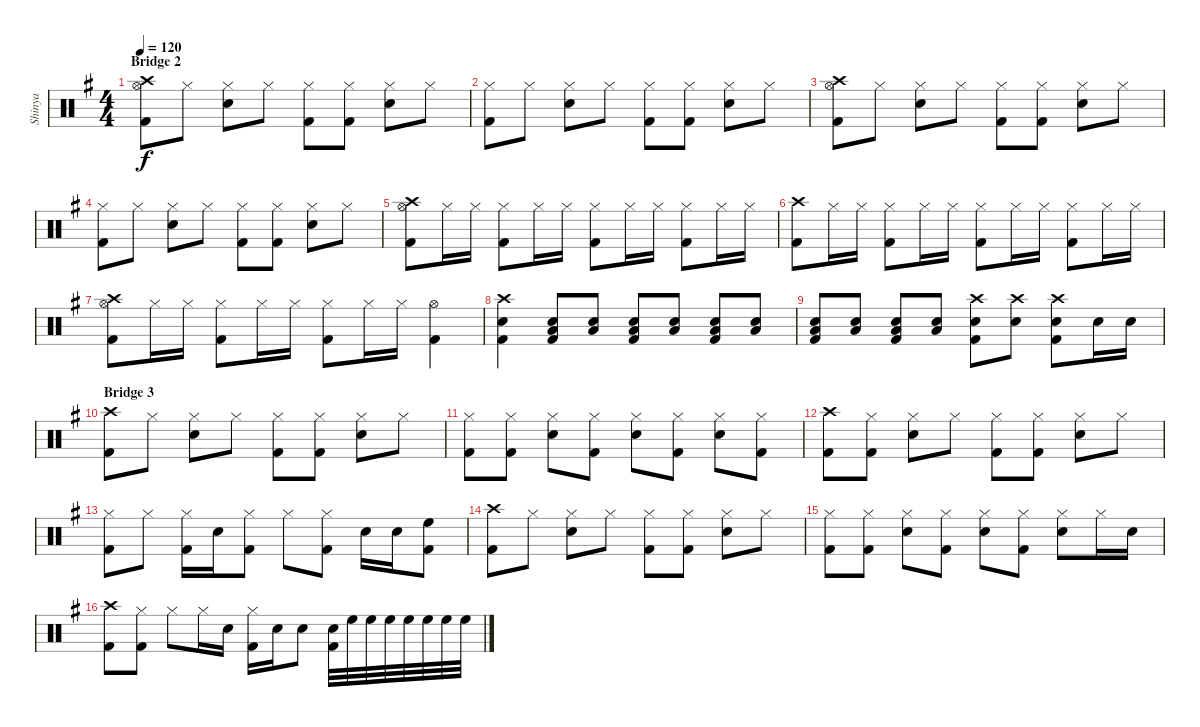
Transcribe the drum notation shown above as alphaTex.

\track ("Shinya" "Shinya") {instrument percussion}
\staff {score}
\articulation defaults
\ts (4 4)
\section ("" "Bridge 2")
\tempo 120
\clef neutral
\ks g
("Crash high (hit)" "Hi-Hat (open)" "Kick (hit) 2").8{dy f} "Hi-Hat (closed)".8 ("Hi-Hat (closed)" "Snare (hit) 2").8 "Hi-Hat (closed)".8 ("Hi-Hat (closed)" "Kick (hit) 2").8 ("Hi-Hat (closed)" "Kick (hit) 2").8 ("Hi-Hat (closed)" "Snare (hit) 2").8 "Hi-Hat (closed)".8 |
("Hi-Hat (closed)" "Kick (hit) 2").8 "Hi-Hat (closed)".8 ("Hi-Hat (closed)" "Snare (hit) 2").8 "Hi-Hat (closed)".8 ("Hi-Hat (closed)" "Kick (hit) 2").8 ("Hi-Hat (closed)" "Kick (hit) 2").8 ("Hi-Hat (closed)" "Snare (hit) 2").8 "Hi-Hat (closed)".8 |
("Crash high (hit)" "Hi-Hat (open)" "Kick (hit) 2").8 "Hi-Hat (closed)".8 ("Hi-Hat (closed)" "Snare (hit) 2").8 "Hi-Hat (closed)".8 ("Hi-Hat (closed)" "Kick (hit) 2").8 ("Hi-Hat (closed)" "Kick (hit) 2").8 ("Hi-Hat (closed)" "Snare (hit) 2").8 "Hi-Hat (closed)".8 |
("Hi-Hat (closed)" "Kick (hit) 2").8 "Hi-Hat (closed)".8 ("Hi-Hat (closed)" "Snare (hit) 2").8 "Hi-Hat (closed)".8 ("Hi-Hat (closed)" "Kick (hit) 2").8 ("Hi-Hat (closed)" "Kick (hit) 2").8 ("Hi-Hat (closed)" "Snare (hit) 2").8 "Hi-Hat (closed)".8 |
("Crash high (hit)" "Hi-Hat (open)" "Kick (hit) 2").8 "Hi-Hat (closed)".16 "Hi-Hat (closed)".16 ("Hi-Hat (closed)" "Kick (hit) 2").8 "Hi-Hat (closed)".16 "Hi-Hat (closed)".16 ("Hi-Hat (closed)" "Kick (hit) 2").8 "Hi-Hat (closed)".16 "Hi-Hat (closed)".16 ("Hi-Hat (closed)" "Kick (hit) 2").8 "Hi-Hat (closed)".16 "Hi-Hat (closed)".16 |
("Crash high (hit)" "Kick (hit) 2").8 "Hi-Hat (closed)".16 "Hi-Hat (closed)".16 ("Hi-Hat (closed)" "Kick (hit) 2").8 "Hi-Hat (closed)".16 "Hi-Hat (closed)".16 ("Hi-Hat (closed)" "Kick (hit) 2").8 "Hi-Hat (closed)".16 "Hi-Hat (closed)".16 ("Hi-Hat (closed)" "Kick (hit) 2").8 "Hi-Hat (closed)".16 "Hi-Hat (closed)".16 |
("Crash high (hit)" "Hi-Hat (open)" "Kick (hit) 2").8 "Hi-Hat (closed)".16 "Hi-Hat (closed)".16 ("Hi-Hat (closed)" "Kick (hit) 2").8 "Hi-Hat (closed)".16 "Hi-Hat (closed)".16 ("Hi-Hat (closed)" "Kick (hit) 2").8 "Hi-Hat (closed)".16 "Hi-Hat (closed)".16 ("Hi-Hat (open)" "Kick (hit) 2").4 |
("Crash high (hit)" "Snare (hit) 2" "Kick (hit) 2").4 ("Snare (hit) 2" "Low Floor Tom (hit)" "Kick (hit) 2").8 ("Snare (hit) 2" "Low Floor Tom (hit)").8 ("Snare (hit) 2" "Low Floor Tom (hit)" "Kick (hit) 2").8 ("Snare (hit) 2" "Low Floor Tom (hit)").8 ("Snare (hit) 2" "Low Floor Tom (hit)" "Kick (hit) 2").8 ("Snare (hit) 2" "Low Floor Tom (hit)").8 |
("Snare (hit) 2" "Low Floor Tom (hit)" "Kick (hit) 2").8 ("Snare (hit) 2" "Low Floor Tom (hit)").8 ("Snare (hit) 2" "Low Floor Tom (hit)" "Kick (hit) 2").8 ("Snare (hit) 2" "Low Floor Tom (hit)").8 ("Crash high (hit)" "Snare (hit) 2" "Kick (hit) 2").8 ("Crash high (hit)" "Snare (hit) 2").8 ("Crash high (hit)" "Snare (hit) 2" "Kick (hit) 2").8 "Snare (hit) 2".16 "Snare (hit) 2".16 |
\section ("" "Bridge 3")
("Crash high (hit)" "Kick (hit) 2").8 "Hi-Hat (closed)".8 ("Hi-Hat (closed)" "Snare (hit) 2").8 "Hi-Hat (closed)".8 ("Hi-Hat (closed)" "Kick (hit) 2").8 ("Hi-Hat (closed)" "Kick (hit) 2").8 ("Hi-Hat (closed)" "Snare (hit) 2").8 "Hi-Hat (closed)".8 |
("Hi-Hat (closed)" "Kick (hit) 2").8 ("Hi-Hat (closed)" "Kick (hit) 2").8 ("Hi-Hat (closed)" "Snare (hit) 2").8 ("Hi-Hat (closed)" "Kick (hit) 2").8 ("Hi-Hat (closed)" "Snare (hit) 2").8 ("Hi-Hat (closed)" "Kick (hit) 2").8 ("Hi-Hat (closed)" "Snare (hit) 2").8 ("Hi-Hat (closed)" "Kick (hit) 2").8 |
("Crash high (hit)" "Kick (hit) 2").8 ("Hi-Hat (closed)" "Kick (hit) 2").8 ("Hi-Hat (closed)" "Snare (hit) 2").8 "Hi-Hat (closed)".8 ("Hi-Hat (closed)" "Kick (hit) 2").8 ("Hi-Hat (closed)" "Kick (hit) 2").8 ("Hi-Hat (closed)" "Snare (hit) 2").8 "Hi-Hat (closed)".8 |
("Hi-Hat (closed)" "Kick (hit) 2").8 "Hi-Hat (closed)".8 ("Hi-Hat (closed)" "Kick (hit) 2").16 "Snare (hit) 2".16 ("Hi-Hat (closed)" "Kick (hit) 2").8 "Hi-Hat (closed)".8 ("Hi-Hat (closed)" "Kick (hit) 2").8 "Snare (hit) 2".16 "Snare (hit) 2".16 ("High Floor Tom (hit)" "Kick (hit) 2").8 |
("Crash high (hit)" "Kick (hit) 2").8 "Hi-Hat (closed)".8 ("Hi-Hat (closed)" "Snare (hit) 2").8 "Hi-Hat (closed)".8 ("Hi-Hat (closed)" "Kick (hit) 2").8 ("Hi-Hat (closed)" "Kick (hit) 2").8 ("Hi-Hat (closed)" "Snare (hit) 2").8 "Hi-Hat (closed)".8 |
("Hi-Hat (closed)" "Kick (hit) 2").8 ("Hi-Hat (closed)" "Kick (hit) 2").8 ("Hi-Hat (closed)" "Snare (hit) 2").8 ("Hi-Hat (closed)" "Kick (hit) 2").8 ("Hi-Hat (closed)" "Snare (hit) 2").8 ("Hi-Hat (closed)" "Kick (hit) 2").8 ("Hi-Hat (closed)" "Snare (hit) 2").8 "Hi-Hat (closed)".16 "Snare (hit) 2".16 |
("Crash high (hit)" "Kick (hit) 2").8 ("Hi-Hat (closed)" "Kick (hit) 2").8 "Hi-Hat (closed)".8 "Hi-Hat (closed)".16 "Snare (hit) 2".16 ("Hi-Hat (closed)" "Kick (hit) 2").16 "Snare (hit) 2".16 "Snare (hit) 2".8 ("Snare (hit) 2" "Kick (hit) 2").32 "High Floor Tom (hit)".32 "High Floor Tom (hit)".32 "High Floor Tom (hit)".32 "High Floor Tom (hit)".32 "High Floor Tom (hit)".32 "High Floor Tom (hit)".32 "High Floor Tom (hit)".32
